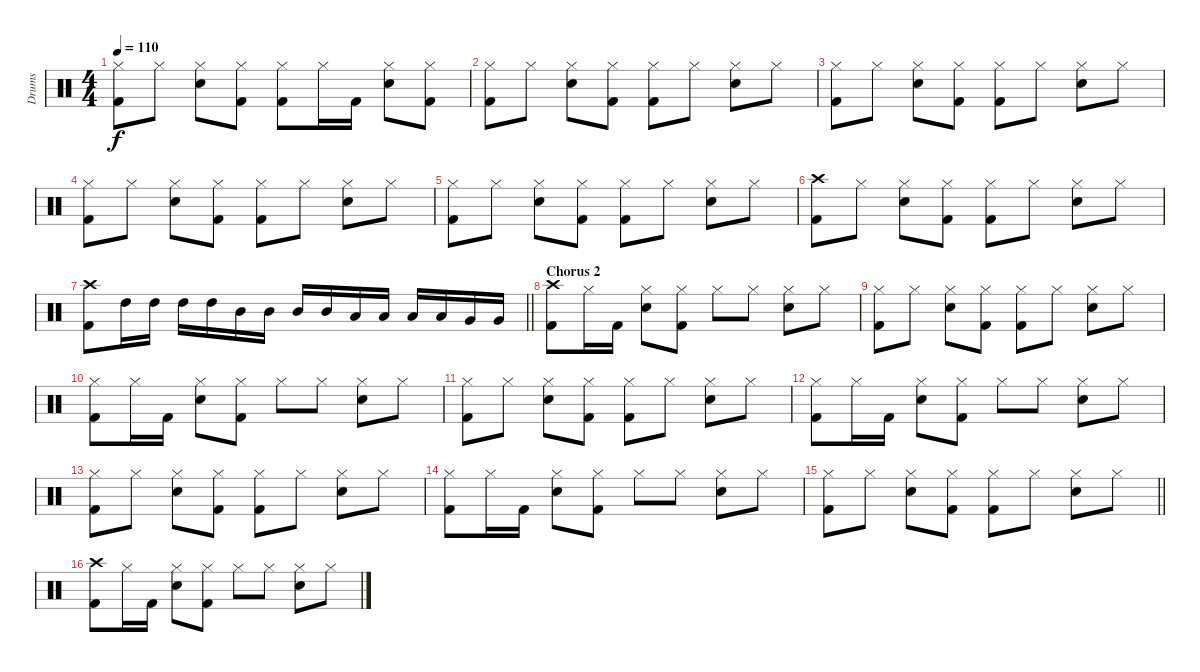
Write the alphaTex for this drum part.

\track ("Drums" "Drums") {instrument percussion}
\staff {score}
\articulation defaults
\ts (4 4)
\tempo 110
\clef neutral
\ks c
("Hi-Hat (closed)" "Kick (hit) 2").8{dy f} "Hi-Hat (closed)".8 ("Hi-Hat (closed)" "Snare (hit) 2").8 ("Hi-Hat (closed)" "Kick (hit) 2").8 ("Hi-Hat (closed)" "Kick (hit) 2").8 "Hi-Hat (closed)".16 "Kick (hit) 2".16 ("Hi-Hat (closed)" "Snare (hit) 2").8 ("Hi-Hat (closed)" "Kick (hit) 2").8 |
("Hi-Hat (closed)" "Kick (hit) 2").8 "Hi-Hat (closed)".8 ("Hi-Hat (closed)" "Snare (hit) 2").8 ("Hi-Hat (closed)" "Kick (hit) 2").8 ("Hi-Hat (closed)" "Kick (hit) 2").8 "Hi-Hat (closed)".8 ("Hi-Hat (closed)" "Snare (hit) 2").8 "Hi-Hat (closed)".8 |
("Hi-Hat (closed)" "Kick (hit) 2").8 "Hi-Hat (closed)".8 ("Hi-Hat (closed)" "Snare (hit) 2").8 ("Hi-Hat (closed)" "Kick (hit) 2").8 ("Hi-Hat (closed)" "Kick (hit) 2").8 "Hi-Hat (closed)".8 ("Hi-Hat (closed)" "Snare (hit) 2").8 "Hi-Hat (closed)".8 |
("Hi-Hat (closed)" "Kick (hit) 2").8 "Hi-Hat (closed)".8 ("Hi-Hat (closed)" "Snare (hit) 2").8 ("Hi-Hat (closed)" "Kick (hit) 2").8 ("Hi-Hat (closed)" "Kick (hit) 2").8 "Hi-Hat (closed)".8 ("Hi-Hat (closed)" "Snare (hit) 2").8 "Hi-Hat (closed)".8 |
("Hi-Hat (closed)" "Kick (hit) 2").8 "Hi-Hat (closed)".8 ("Hi-Hat (closed)" "Snare (hit) 2").8 ("Hi-Hat (closed)" "Kick (hit) 2").8 ("Hi-Hat (closed)" "Kick (hit) 2").8 "Hi-Hat (closed)".8 ("Hi-Hat (closed)" "Snare (hit) 2").8 "Hi-Hat (closed)".8 |
("Crash high (hit)" "Kick (hit) 2").8 "Hi-Hat (closed)".8 ("Hi-Hat (closed)" "Snare (hit) 2").8 ("Hi-Hat (closed)" "Kick (hit) 2").8 ("Hi-Hat (closed)" "Kick (hit) 2").8 "Hi-Hat (closed)".8 ("Hi-Hat (closed)" "Snare (hit) 2").8 "Hi-Hat (closed)".8 |
\barLineRight lightlight
("Crash high (hit)" "Kick (hit) 2").8 "High Tom (hit)".16 "High Tom (hit)".16 "High Tom (hit)".16 "High Tom (hit)".16 "Mid Tom (hit)".16 "Mid Tom (hit)".16 "Mid Tom (hit)".16 "Mid Tom (hit)".16 "Low Tom (hit)".16 "Low Tom (hit)".16 "Low Tom (hit)".16 "Low Tom (hit)".16 "Very Low Tom (hit)".16 "Very Low Tom (hit)".16 |
\section ("" "Chorus 2")
("Crash high (hit)" "Kick (hit) 2").8 "Hi-Hat (closed)".16 "Kick (hit) 2".16 ("Hi-Hat (closed)" "Snare (hit) 2").8 ("Hi-Hat (closed)" "Kick (hit) 2").8 "Hi-Hat (closed)".8 "Hi-Hat (closed)".8 ("Hi-Hat (closed)" "Snare (hit) 2").8 "Hi-Hat (closed)".8 |
("Hi-Hat (closed)" "Kick (hit) 2").8 "Hi-Hat (closed)".8 ("Hi-Hat (closed)" "Snare (hit) 2").8 ("Hi-Hat (closed)" "Kick (hit) 2").8 ("Hi-Hat (closed)" "Kick (hit) 2").8 "Hi-Hat (closed)".8 ("Hi-Hat (closed)" "Snare (hit) 2").8 "Hi-Hat (closed)".8 |
("Hi-Hat (closed)" "Kick (hit) 2").8 "Hi-Hat (closed)".16 "Kick (hit) 2".16 ("Hi-Hat (closed)" "Snare (hit) 2").8 ("Hi-Hat (closed)" "Kick (hit) 2").8 "Hi-Hat (closed)".8 "Hi-Hat (closed)".8 ("Hi-Hat (closed)" "Snare (hit) 2").8 "Hi-Hat (closed)".8 |
("Hi-Hat (closed)" "Kick (hit) 2").8 "Hi-Hat (closed)".8 ("Hi-Hat (closed)" "Snare (hit) 2").8 ("Hi-Hat (closed)" "Kick (hit) 2").8 ("Hi-Hat (closed)" "Kick (hit) 2").8 "Hi-Hat (closed)".8 ("Hi-Hat (closed)" "Snare (hit) 2").8 "Hi-Hat (closed)".8 |
("Hi-Hat (closed)" "Kick (hit) 2").8 "Hi-Hat (closed)".16 "Kick (hit) 2".16 ("Hi-Hat (closed)" "Snare (hit) 2").8 ("Hi-Hat (closed)" "Kick (hit) 2").8 "Hi-Hat (closed)".8 "Hi-Hat (closed)".8 ("Hi-Hat (closed)" "Snare (hit) 2").8 "Hi-Hat (closed)".8 |
("Hi-Hat (closed)" "Kick (hit) 2").8 "Hi-Hat (closed)".8 ("Hi-Hat (closed)" "Snare (hit) 2").8 ("Hi-Hat (closed)" "Kick (hit) 2").8 ("Hi-Hat (closed)" "Kick (hit) 2").8 "Hi-Hat (closed)".8 ("Hi-Hat (closed)" "Snare (hit) 2").8 "Hi-Hat (closed)".8 |
("Hi-Hat (closed)" "Kick (hit) 2").8 "Hi-Hat (closed)".16 "Kick (hit) 2".16 ("Hi-Hat (closed)" "Snare (hit) 2").8 ("Hi-Hat (closed)" "Kick (hit) 2").8 "Hi-Hat (closed)".8 "Hi-Hat (closed)".8 ("Hi-Hat (closed)" "Snare (hit) 2").8 "Hi-Hat (closed)".8 |
\barLineRight lightlight
("Hi-Hat (closed)" "Kick (hit) 2").8 "Hi-Hat (closed)".8 ("Hi-Hat (closed)" "Snare (hit) 2").8 ("Hi-Hat (closed)" "Kick (hit) 2").8 ("Hi-Hat (closed)" "Kick (hit) 2").8 "Hi-Hat (closed)".8 ("Hi-Hat (closed)" "Snare (hit) 2").8 "Hi-Hat (closed)".8 |
("Crash high (hit)" "Kick (hit) 2").8 "Hi-Hat (closed)".16 "Kick (hit) 2".16 ("Hi-Hat (closed)" "Snare (hit) 2").8 ("Hi-Hat (closed)" "Kick (hit) 2").8 "Hi-Hat (closed)".8 "Hi-Hat (closed)".8 ("Hi-Hat (closed)" "Snare (hit) 2").8 "Hi-Hat (closed)".8
